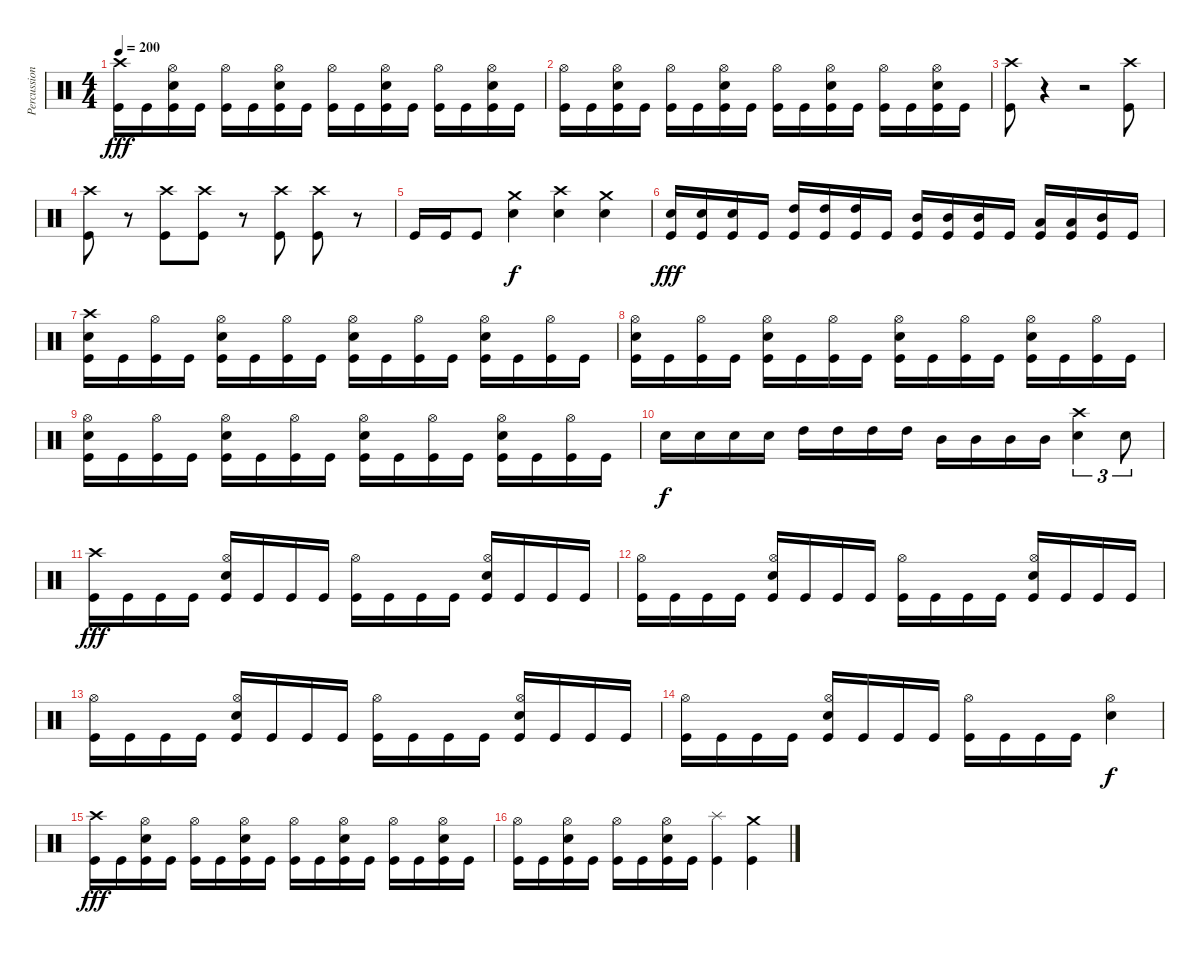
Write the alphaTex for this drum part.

\track ("Percussion" "Percussion") {instrument percussion}
\staff {score}
\articulation defaults
\ts (4 4)
\tempo 200
\clef neutral
\ks c
("Crash high (hit)" "Kick (hit)").16{dy fff} "Kick (hit)".16 ("Hi-Hat (open)" "Snare (hit) 2" "Kick (hit)").16 "Kick (hit)".16 ("Hi-Hat (open)" "Kick (hit)").16 "Kick (hit)".16 ("Hi-Hat (open)" "Snare (hit) 2" "Kick (hit)").16 "Kick (hit)".16 ("Hi-Hat (open)" "Kick (hit)").16 "Kick (hit)".16 ("Hi-Hat (open)" "Snare (hit) 2" "Kick (hit)").16 "Kick (hit)".16 ("Hi-Hat (open)" "Kick (hit)").16 "Kick (hit)".16 ("Hi-Hat (open)" "Snare (hit) 2" "Kick (hit)").16 "Kick (hit)".16 |
("Hi-Hat (open)" "Kick (hit)").16 "Kick (hit)".16 ("Hi-Hat (open)" "Snare (hit) 2" "Kick (hit)").16 "Kick (hit)".16 ("Hi-Hat (open)" "Kick (hit)").16 "Kick (hit)".16 ("Hi-Hat (open)" "Snare (hit) 2" "Kick (hit)").16 "Kick (hit)".16 ("Hi-Hat (open)" "Kick (hit)").16 "Kick (hit)".16 ("Hi-Hat (open)" "Snare (hit) 2" "Kick (hit)").16 "Kick (hit)".16 ("Hi-Hat (open)" "Kick (hit)").16 "Kick (hit)".16 ("Hi-Hat (open)" "Snare (hit) 2" "Kick (hit)").16 "Kick (hit)".16 |
("Crash high (hit)" "Kick (hit)").8 r.4{volume 0} r.2{volume 12} ("Crash high (hit)" "Kick (hit)").8 |
("Crash high (hit)" "Kick (hit)").8 r.8{volume 0} ("Crash high (hit)" "Kick (hit)").8{volume 12} ("Crash high (hit)" "Kick (hit)").8 r.8{volume 0} ("Crash high (hit)" "Kick (hit)").8{volume 12} ("Crash high (hit)" "Kick (hit)").8 r.8{volume 0} |
"Kick (hit)".16{volume 12} "Kick (hit)".16 "Kick (hit)".8 ("Crash medium (hit)" "Snare (hit) 2").4{dy f} ("Crash high (hit)" "Snare (hit) 2").4 ("Crash medium (hit)" "Snare (hit) 2").4 |
("Snare (hit) 2" "Kick (hit)").16{dy fff} ("Snare (hit) 2" "Kick (hit)").16 ("Snare (hit) 2" "Kick (hit)").16 "Kick (hit)".16 ("High Tom (hit)" "Kick (hit)").16 ("High Tom (hit)" "Kick (hit)").16 ("High Tom (hit)" "Kick (hit)").16 "Kick (hit)".16 ("Mid Tom (hit)" "Kick (hit)").16 ("Mid Tom (hit)" "Kick (hit)").16 ("Mid Tom (hit)" "Kick (hit)").16 "Kick (hit)".16 ("Low Tom (hit)" "Kick (hit)").16 ("Low Tom (hit)" "Kick (hit)").16 ("Mid Tom (hit)" "Kick (hit)").16 "Kick (hit)".16 |
("Crash high (hit)" "Snare (hit) 2" "Kick (hit)").16 "Kick (hit)".16 ("Hi-Hat (open)" "Kick (hit)").16 "Kick (hit)".16 ("Hi-Hat (open)" "Snare (hit) 2" "Kick (hit)").16 "Kick (hit)".16 ("Hi-Hat (open)" "Kick (hit)").16 "Kick (hit)".16 ("Hi-Hat (open)" "Snare (hit) 2" "Kick (hit)").16 "Kick (hit)".16 ("Hi-Hat (open)" "Kick (hit)").16 "Kick (hit)".16 ("Hi-Hat (open)" "Snare (hit) 2" "Kick (hit)").16 "Kick (hit)".16 ("Hi-Hat (open)" "Kick (hit)").16 "Kick (hit)".16 |
("Hi-Hat (open)" "Snare (hit) 2" "Kick (hit)").16 "Kick (hit)".16 ("Hi-Hat (open)" "Kick (hit)").16 "Kick (hit)".16 ("Hi-Hat (open)" "Snare (hit) 2" "Kick (hit)").16 "Kick (hit)".16 ("Hi-Hat (open)" "Kick (hit)").16 "Kick (hit)".16 ("Hi-Hat (open)" "Snare (hit) 2" "Kick (hit)").16 "Kick (hit)".16 ("Hi-Hat (open)" "Kick (hit)").16 "Kick (hit)".16 ("Hi-Hat (open)" "Snare (hit) 2" "Kick (hit)").16 "Kick (hit)".16 ("Hi-Hat (open)" "Kick (hit)").16 "Kick (hit)".16 |
("Hi-Hat (open)" "Snare (hit) 2" "Kick (hit)").16 "Kick (hit)".16 ("Hi-Hat (open)" "Kick (hit)").16 "Kick (hit)".16 ("Hi-Hat (open)" "Snare (hit) 2" "Kick (hit)").16 "Kick (hit)".16 ("Hi-Hat (open)" "Kick (hit)").16 "Kick (hit)".16 ("Hi-Hat (open)" "Snare (hit) 2" "Kick (hit)").16 "Kick (hit)".16 ("Hi-Hat (open)" "Kick (hit)").16 "Kick (hit)".16 ("Hi-Hat (open)" "Snare (hit) 2" "Kick (hit)").16 "Kick (hit)".16 ("Hi-Hat (open)" "Kick (hit)").16 "Kick (hit)".16 |
"Snare (hit) 2".16{dy f} "Snare (hit) 2".16 "Snare (hit) 2".16 "Snare (hit) 2".16 "High Tom (hit)".16 "High Tom (hit)".16 "High Tom (hit)".16 "High Tom (hit)".16 "Mid Tom (hit)".16 "Mid Tom (hit)".16 "Mid Tom (hit)".16 "Mid Tom (hit)".16 ("Crash high (hit)" "Snare (hit) 2").4{tu (3 2)} "Snare (hit) 2".8{tu (3 2)} |
("Crash high (hit)" "Kick (hit)").16{dy fff} "Kick (hit)".16 "Kick (hit)".16 "Kick (hit)".16 ("Hi-Hat (open)" "Snare (hit) 2" "Kick (hit)").16 "Kick (hit)".16 "Kick (hit)".16 "Kick (hit)".16 ("Hi-Hat (open)" "Kick (hit)").16 "Kick (hit)".16 "Kick (hit)".16 "Kick (hit)".16 ("Hi-Hat (open)" "Snare (hit) 2" "Kick (hit)").16 "Kick (hit)".16 "Kick (hit)".16 "Kick (hit)".16 |
("Hi-Hat (open)" "Kick (hit)").16 "Kick (hit)".16 "Kick (hit)".16 "Kick (hit)".16 ("Hi-Hat (open)" "Snare (hit) 2" "Kick (hit)").16 "Kick (hit)".16 "Kick (hit)".16 "Kick (hit)".16 ("Hi-Hat (open)" "Kick (hit)").16 "Kick (hit)".16 "Kick (hit)".16 "Kick (hit)".16 ("Hi-Hat (open)" "Snare (hit) 2" "Kick (hit)").16 "Kick (hit)".16 "Kick (hit)".16 "Kick (hit)".16 |
("Hi-Hat (open)" "Kick (hit)").16 "Kick (hit)".16 "Kick (hit)".16 "Kick (hit)".16 ("Hi-Hat (open)" "Snare (hit) 2" "Kick (hit)").16 "Kick (hit)".16 "Kick (hit)".16 "Kick (hit)".16 ("Hi-Hat (open)" "Kick (hit)").16 "Kick (hit)".16 "Kick (hit)".16 "Kick (hit)".16 ("Hi-Hat (open)" "Snare (hit) 2" "Kick (hit)").16 "Kick (hit)".16 "Kick (hit)".16 "Kick (hit)".16 |
("Hi-Hat (open)" "Kick (hit)").16 "Kick (hit)".16 "Kick (hit)".16 "Kick (hit)".16 ("Hi-Hat (open)" "Snare (hit) 2" "Kick (hit)").16 "Kick (hit)".16 "Kick (hit)".16 "Kick (hit)".16 ("Hi-Hat (open)" "Kick (hit)").16 "Kick (hit)".16 "Kick (hit)".16 "Kick (hit)".16 ("Hi-Hat (open)" "Snare (hit) 2").4{dy f} |
("Crash high (hit)" "Kick (hit)").16{dy fff} "Kick (hit)".16 ("Hi-Hat (open)" "Snare (hit) 2" "Kick (hit)").16 "Kick (hit)".16 ("Hi-Hat (open)" "Kick (hit)").16 "Kick (hit)".16 ("Hi-Hat (open)" "Snare (hit) 2" "Kick (hit)").16 "Kick (hit)".16 ("Hi-Hat (open)" "Kick (hit)").16 "Kick (hit)".16 ("Hi-Hat (open)" "Snare (hit) 2" "Kick (hit)").16 "Kick (hit)".16 ("Hi-Hat (open)" "Kick (hit)").16 "Kick (hit)".16 ("Hi-Hat (open)" "Snare (hit) 2" "Kick (hit)").16 "Kick (hit)".16 |
("Hi-Hat (open)" "Kick (hit)").16 "Kick (hit)".16 ("Hi-Hat (open)" "Snare (hit) 2" "Kick (hit)").16 "Kick (hit)".16 ("Hi-Hat (open)" "Kick (hit)").16 "Kick (hit)".16 ("Hi-Hat (open)" "Snare (hit) 2" "Kick (hit)").16 "Kick (hit)".16 ("Splash (hit)" "Kick (hit)").4 ("Crash medium (hit)" "Kick (hit)").4
